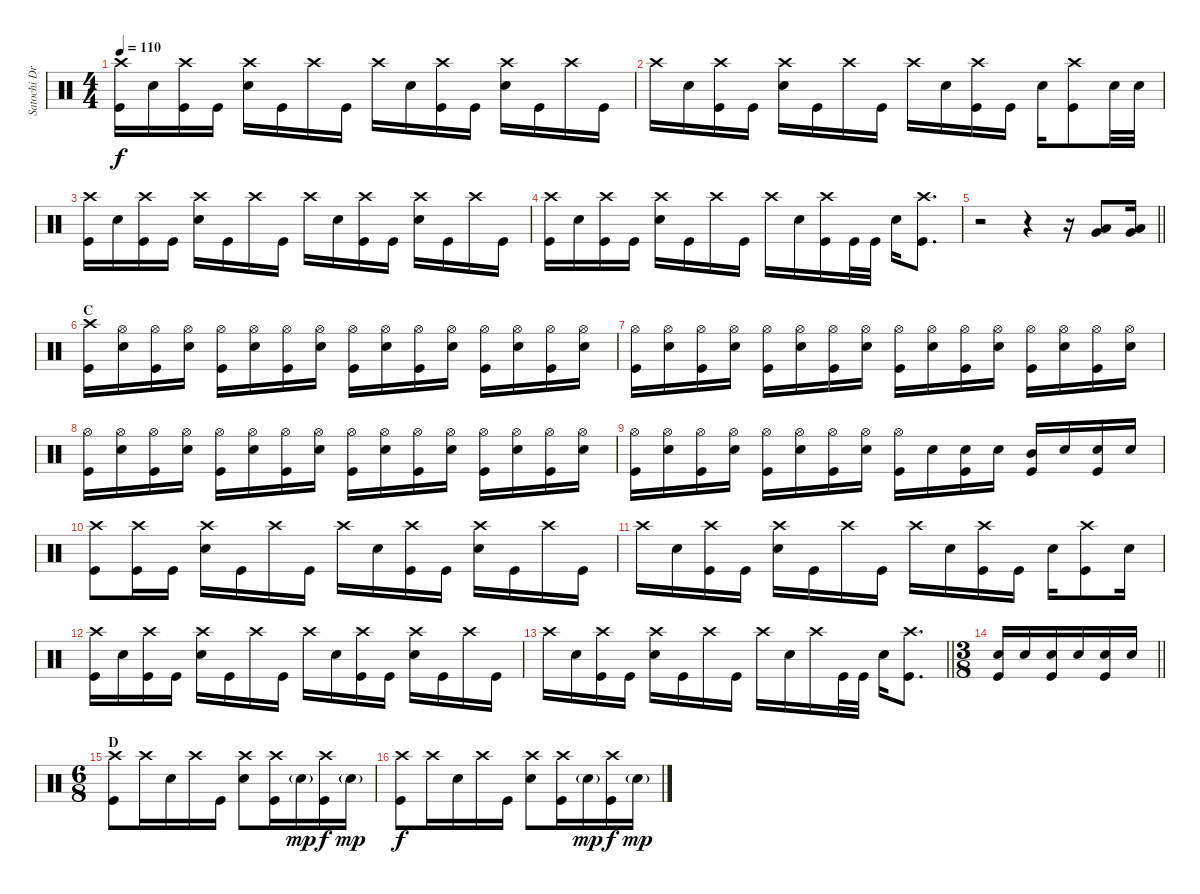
\track ("Satochi Drums" "Satochi Dr") {instrument percussion}
\staff {score}
\articulation defaults
\ts (4 4)
\tempo 110
\clef neutral
\ks c
("Crash high (hit)" "Kick (hit)").16{dy f} "Electric Snare (hit)".16 ("Crash high (hit)" "Kick (hit)").16 "Kick (hit)".16 ("Crash high (hit)" "Electric Snare (hit)").16 "Kick (hit)".16 "Crash high (hit)".16 "Kick (hit)".16 "Crash high (hit)".16 "Electric Snare (hit)".16 ("Crash high (hit)" "Kick (hit)").16 "Kick (hit)".16 ("Crash high (hit)" "Electric Snare (hit)").16 "Kick (hit)".16 "Crash high (hit)".16 "Kick (hit)".16 |
"Crash high (hit)".16 "Electric Snare (hit)".16 ("Crash high (hit)" "Kick (hit)").16 "Kick (hit)".16 ("Crash high (hit)" "Electric Snare (hit)").16 "Kick (hit)".16 "Crash high (hit)".16 "Kick (hit)".16 "Crash high (hit)".16 "Electric Snare (hit)".16 ("Crash high (hit)" "Kick (hit)").16 "Kick (hit)".16 "Electric Snare (hit)".16 ("Crash high (hit)" "Kick (hit)").8 "Electric Snare (hit)".32 "Electric Snare (hit)".32 |
("Crash high (hit)" "Kick (hit)").16 "Electric Snare (hit)".16 ("Crash high (hit)" "Kick (hit)").16 "Kick (hit)".16 ("Crash high (hit)" "Electric Snare (hit)").16 "Kick (hit)".16 "Crash high (hit)".16 "Kick (hit)".16 "Crash high (hit)".16 "Electric Snare (hit)".16 ("Crash high (hit)" "Kick (hit)").16 "Kick (hit)".16 ("Crash high (hit)" "Electric Snare (hit)").16 "Kick (hit)".16 "Crash high (hit)".16 "Kick (hit)".16 |
("Crash high (hit)" "Kick (hit)").16 "Electric Snare (hit)".16 ("Crash high (hit)" "Kick (hit)").16 "Kick (hit)".16 ("Crash high (hit)" "Electric Snare (hit)").16 "Kick (hit)".16 "Crash high (hit)".16 "Kick (hit)".16 "Crash high (hit)".16 "Electric Snare (hit)".16 ("Crash high (hit)" "Kick (hit)").16 "Kick (hit)".32 "Kick (hit)".32 "Electric Snare (hit)".16 ("Crash high (hit)" "Kick (hit)").8{d} |
\barLineRight lightlight
r.2 r.4 r.16 ("Very Low Tom (hit)" "Low Floor Tom (hit)").8 ("Very Low Tom (hit)" "Low Floor Tom (hit)").16 |
\section ("" "C")
("Crash high (hit)" "Kick (hit)").16 ("Hi-Hat (open)" "Electric Snare (hit)").16 ("Hi-Hat (open)" "Kick (hit)").16 ("Hi-Hat (open)" "Electric Snare (hit)").16 ("Hi-Hat (open)" "Kick (hit)").16 ("Hi-Hat (open)" "Electric Snare (hit)").16 ("Hi-Hat (open)" "Kick (hit)").16 ("Hi-Hat (open)" "Electric Snare (hit)").16 ("Hi-Hat (open)" "Kick (hit)").16 ("Hi-Hat (open)" "Electric Snare (hit)").16 ("Hi-Hat (open)" "Kick (hit)").16 ("Hi-Hat (open)" "Electric Snare (hit)").16 ("Hi-Hat (open)" "Kick (hit)").16 ("Hi-Hat (open)" "Electric Snare (hit)").16 ("Hi-Hat (open)" "Kick (hit)").16 ("Hi-Hat (open)" "Electric Snare (hit)").16 |
("Hi-Hat (open)" "Kick (hit)").16 ("Hi-Hat (open)" "Electric Snare (hit)").16 ("Hi-Hat (open)" "Kick (hit)").16 ("Hi-Hat (open)" "Electric Snare (hit)").16 ("Hi-Hat (open)" "Kick (hit)").16 ("Hi-Hat (open)" "Electric Snare (hit)").16 ("Hi-Hat (open)" "Kick (hit)").16 ("Hi-Hat (open)" "Electric Snare (hit)").16 ("Hi-Hat (open)" "Kick (hit)").16 ("Hi-Hat (open)" "Electric Snare (hit)").16 ("Hi-Hat (open)" "Kick (hit)").16 ("Hi-Hat (open)" "Electric Snare (hit)").16 ("Hi-Hat (open)" "Kick (hit)").16 ("Hi-Hat (open)" "Electric Snare (hit)").16 ("Hi-Hat (open)" "Kick (hit)").16 ("Hi-Hat (open)" "Electric Snare (hit)").16 |
("Hi-Hat (open)" "Kick (hit)").16 ("Hi-Hat (open)" "Electric Snare (hit)").16 ("Hi-Hat (open)" "Kick (hit)").16 ("Hi-Hat (open)" "Electric Snare (hit)").16 ("Hi-Hat (open)" "Kick (hit)").16 ("Hi-Hat (open)" "Electric Snare (hit)").16 ("Hi-Hat (open)" "Kick (hit)").16 ("Hi-Hat (open)" "Electric Snare (hit)").16 ("Hi-Hat (open)" "Kick (hit)").16 ("Hi-Hat (open)" "Electric Snare (hit)").16 ("Hi-Hat (open)" "Kick (hit)").16 ("Hi-Hat (open)" "Electric Snare (hit)").16 ("Hi-Hat (open)" "Kick (hit)").16 ("Hi-Hat (open)" "Electric Snare (hit)").16 ("Hi-Hat (open)" "Kick (hit)").16 ("Hi-Hat (open)" "Electric Snare (hit)").16 |
("Hi-Hat (open)" "Kick (hit)").16 ("Hi-Hat (open)" "Electric Snare (hit)").16 ("Hi-Hat (open)" "Kick (hit)").16 ("Hi-Hat (open)" "Electric Snare (hit)").16 ("Hi-Hat (open)" "Kick (hit)").16 ("Hi-Hat (open)" "Electric Snare (hit)").16 ("Hi-Hat (open)" "Kick (hit)").16 ("Hi-Hat (open)" "Electric Snare (hit)").16 ("Hi-Hat (open)" "Kick (hit)").16 "Electric Snare (hit)".16 ("Electric Snare (hit)" "Kick (hit)").16 "Electric Snare (hit)".16 ("Mid Tom (hit)" "Kick (hit)").16 "Electric Snare (hit)".16 ("Electric Snare (hit)" "Kick (hit)").16 "Electric Snare (hit)".16 |
("Crash high (hit)" "Kick (hit)").8 ("Crash high (hit)" "Kick (hit)").16 "Kick (hit)".16 ("Crash high (hit)" "Electric Snare (hit)").16 "Kick (hit)".16 "Crash high (hit)".16 "Kick (hit)".16 "Crash high (hit)".16 "Electric Snare (hit)".16 ("Crash high (hit)" "Kick (hit)").16 "Kick (hit)".16 ("Crash high (hit)" "Electric Snare (hit)").16 "Kick (hit)".16 "Crash high (hit)".16 "Kick (hit)".16 |
"Crash high (hit)".16 "Electric Snare (hit)".16 ("Crash high (hit)" "Kick (hit)").16 "Kick (hit)".16 ("Crash high (hit)" "Electric Snare (hit)").16 "Kick (hit)".16 "Crash high (hit)".16 "Kick (hit)".16 "Crash high (hit)".16 "Electric Snare (hit)".16 ("Crash high (hit)" "Kick (hit)").16 "Kick (hit)".16 "Electric Snare (hit)".16 ("Crash high (hit)" "Kick (hit)").8 "Electric Snare (hit)".16 |
("Crash high (hit)" "Kick (hit)").16 "Electric Snare (hit)".16 ("Crash high (hit)" "Kick (hit)").16 "Kick (hit)".16 ("Crash high (hit)" "Electric Snare (hit)").16 "Kick (hit)".16 "Crash high (hit)".16 "Kick (hit)".16 "Crash high (hit)".16 "Electric Snare (hit)".16 ("Crash high (hit)" "Kick (hit)").16 "Kick (hit)".16 ("Crash high (hit)" "Electric Snare (hit)").16 "Kick (hit)".16 "Crash high (hit)".16 "Kick (hit)".16 |
\barLineRight lightlight "Crash high (hit)".16 "Electric Snare (hit)".16
("Crash high (hit)" "Kick (hit)").16 "Kick (hit)".16 ("Crash high (hit)" "Electric Snare (hit)").16 "Kick (hit)".16 "Crash high (hit)".16 "Kick (hit)".16 "Crash high (hit)".16 "Electric Snare (hit)".16 "Crash high (hit)".16 "Kick (hit)".32 "Kick (hit)".32 "Electric Snare (hit)".16 ("Crash high (hit)" "Kick (hit)").8{d} |
\ts (3 8)
\barLineRight lightlight
("Electric Snare (hit)" "Kick (hit)").16 "Electric Snare (hit)".16 ("Electric Snare (hit)" "Kick (hit)").16 "Electric Snare (hit)".16 ("Electric Snare (hit)" "Kick (hit)").16 "Electric Snare (hit)".16 |
\ts (6 8)
\section ("" "D")
("Crash high (hit)" "Kick (hit)").8 "Crash high (hit)".16 "Electric Snare (hit)".16 "Crash high (hit)".16 "Kick (hit)".16 ("Crash high (hit)" "Electric Snare (hit)").8 ("Crash high (hit)" "Kick (hit)").16 "Electric Snare (hit)"{g}.16{dy mp} ("Crash high (hit)" "Kick (hit)").16{dy f} "Electric Snare (hit)"{g}.16{dy mp} |
("Crash high (hit)" "Kick (hit)").8{dy f} "Crash high (hit)".16 "Electric Snare (hit)".16 "Crash high (hit)".16 "Kick (hit)".16 ("Crash high (hit)" "Electric Snare (hit)").8 ("Crash high (hit)" "Kick (hit)").16 "Electric Snare (hit)"{g}.16{dy mp} ("Crash high (hit)" "Kick (hit)").16{dy f} "Electric Snare (hit)"{g}.16{dy mp}
